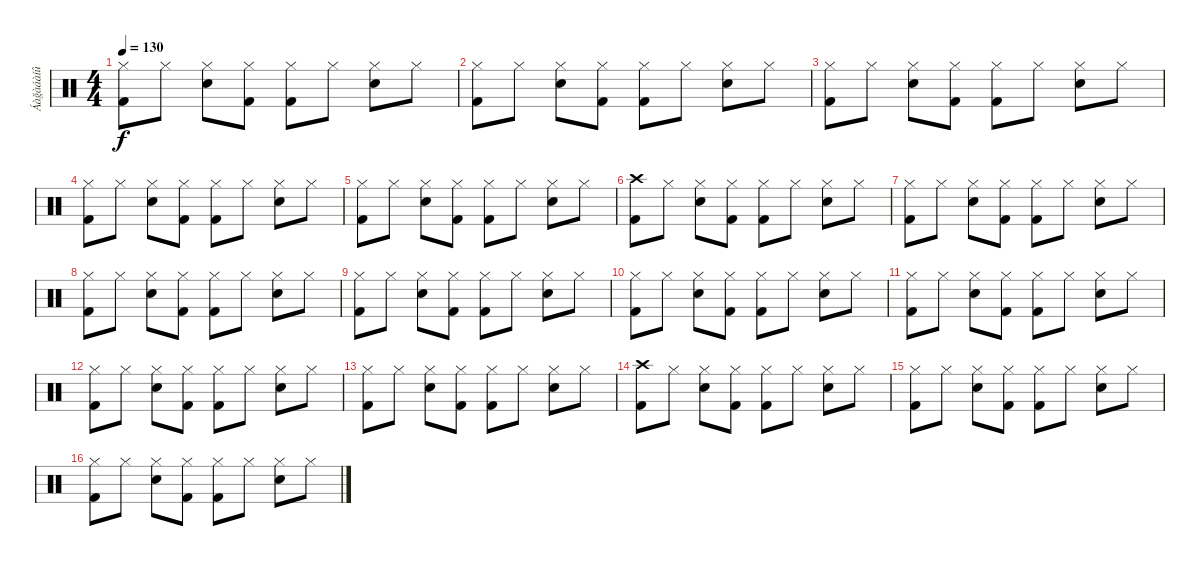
\track ("Áàğàáàíû" "Áàğàáàíû") {instrument percussion}
\staff {score}
\articulation defaults
\ts (4 4)
\tempo 130
\clef neutral
\ks c
("Hi-Hat (closed)" "Kick (hit) 2").8{dy f} "Hi-Hat (closed)".8 ("Hi-Hat (closed)" "Snare (hit) 2").8 ("Hi-Hat (closed)" "Kick (hit) 2").8 ("Hi-Hat (closed)" "Kick (hit) 2").8 "Hi-Hat (closed)".8 ("Hi-Hat (closed)" "Snare (hit) 2").8 "Hi-Hat (closed)".8 |
("Hi-Hat (closed)" "Kick (hit) 2").8 "Hi-Hat (closed)".8 ("Hi-Hat (closed)" "Snare (hit) 2").8 ("Hi-Hat (closed)" "Kick (hit) 2").8 ("Hi-Hat (closed)" "Kick (hit) 2").8 "Hi-Hat (closed)".8 ("Hi-Hat (closed)" "Snare (hit) 2").8 "Hi-Hat (closed)".8 |
("Hi-Hat (closed)" "Kick (hit) 2").8 "Hi-Hat (closed)".8 ("Hi-Hat (closed)" "Snare (hit) 2").8 ("Hi-Hat (closed)" "Kick (hit) 2").8 ("Hi-Hat (closed)" "Kick (hit) 2").8 "Hi-Hat (closed)".8 ("Hi-Hat (closed)" "Snare (hit) 2").8 "Hi-Hat (closed)".8 |
("Hi-Hat (closed)" "Kick (hit) 2").8 "Hi-Hat (closed)".8 ("Hi-Hat (closed)" "Snare (hit) 2").8 ("Hi-Hat (closed)" "Kick (hit) 2").8 ("Hi-Hat (closed)" "Kick (hit) 2").8 "Hi-Hat (closed)".8 ("Hi-Hat (closed)" "Snare (hit) 2").8 "Hi-Hat (closed)".8 |
("Hi-Hat (closed)" "Kick (hit) 2").8 "Hi-Hat (closed)".8 ("Hi-Hat (closed)" "Snare (hit) 2").8 ("Hi-Hat (closed)" "Kick (hit) 2").8 ("Hi-Hat (closed)" "Kick (hit) 2").8 "Hi-Hat (closed)".8 ("Hi-Hat (closed)" "Snare (hit) 2").8 "Hi-Hat (closed)".8 |
("Crash high (hit)" "Kick (hit) 2").8 "Hi-Hat (closed)".8 ("Hi-Hat (closed)" "Snare (hit) 2").8 ("Hi-Hat (closed)" "Kick (hit) 2").8 ("Hi-Hat (closed)" "Kick (hit) 2").8 "Hi-Hat (closed)".8 ("Hi-Hat (closed)" "Snare (hit) 2").8 "Hi-Hat (closed)".8 |
("Hi-Hat (closed)" "Kick (hit) 2").8 "Hi-Hat (closed)".8 ("Hi-Hat (closed)" "Snare (hit) 2").8 ("Hi-Hat (closed)" "Kick (hit) 2").8 ("Hi-Hat (closed)" "Kick (hit) 2").8 "Hi-Hat (closed)".8 ("Hi-Hat (closed)" "Snare (hit) 2").8 "Hi-Hat (closed)".8 |
("Hi-Hat (closed)" "Kick (hit) 2").8 "Hi-Hat (closed)".8 ("Hi-Hat (closed)" "Snare (hit) 2").8 ("Hi-Hat (closed)" "Kick (hit) 2").8 ("Hi-Hat (closed)" "Kick (hit) 2").8 "Hi-Hat (closed)".8 ("Hi-Hat (closed)" "Snare (hit) 2").8 "Hi-Hat (closed)".8 |
("Hi-Hat (closed)" "Kick (hit) 2").8 "Hi-Hat (closed)".8 ("Hi-Hat (closed)" "Snare (hit) 2").8 ("Hi-Hat (closed)" "Kick (hit) 2").8 ("Hi-Hat (closed)" "Kick (hit) 2").8 "Hi-Hat (closed)".8 ("Hi-Hat (closed)" "Snare (hit) 2").8 "Hi-Hat (closed)".8 |
("Hi-Hat (closed)" "Kick (hit) 2").8 "Hi-Hat (closed)".8 ("Hi-Hat (closed)" "Snare (hit) 2").8 ("Hi-Hat (closed)" "Kick (hit) 2").8 ("Hi-Hat (closed)" "Kick (hit) 2").8 "Hi-Hat (closed)".8 ("Hi-Hat (closed)" "Snare (hit) 2").8 "Hi-Hat (closed)".8 |
("Hi-Hat (closed)" "Kick (hit) 2").8 "Hi-Hat (closed)".8 ("Hi-Hat (closed)" "Snare (hit) 2").8 ("Hi-Hat (closed)" "Kick (hit) 2").8 ("Hi-Hat (closed)" "Kick (hit) 2").8 "Hi-Hat (closed)".8 ("Hi-Hat (closed)" "Snare (hit) 2").8 "Hi-Hat (closed)".8 |
("Hi-Hat (closed)" "Kick (hit) 2").8 "Hi-Hat (closed)".8 ("Hi-Hat (closed)" "Snare (hit) 2").8 ("Hi-Hat (closed)" "Kick (hit) 2").8 ("Hi-Hat (closed)" "Kick (hit) 2").8 "Hi-Hat (closed)".8 ("Hi-Hat (closed)" "Snare (hit) 2").8 "Hi-Hat (closed)".8 |
("Hi-Hat (closed)" "Kick (hit) 2").8 "Hi-Hat (closed)".8 ("Hi-Hat (closed)" "Snare (hit) 2").8 ("Hi-Hat (closed)" "Kick (hit) 2").8 ("Hi-Hat (closed)" "Kick (hit) 2").8 "Hi-Hat (closed)".8 ("Hi-Hat (closed)" "Snare (hit) 2").8 "Hi-Hat (closed)".8 |
("Crash high (hit)" "Kick (hit) 2").8 "Hi-Hat (closed)".8 ("Hi-Hat (closed)" "Snare (hit) 2").8 ("Hi-Hat (closed)" "Kick (hit) 2").8 ("Hi-Hat (closed)" "Kick (hit) 2").8 "Hi-Hat (closed)".8 ("Hi-Hat (closed)" "Snare (hit) 2").8 "Hi-Hat (closed)".8 |
("Hi-Hat (closed)" "Kick (hit) 2").8 "Hi-Hat (closed)".8 ("Hi-Hat (closed)" "Snare (hit) 2").8 ("Hi-Hat (closed)" "Kick (hit) 2").8 ("Hi-Hat (closed)" "Kick (hit) 2").8 "Hi-Hat (closed)".8 ("Hi-Hat (closed)" "Snare (hit) 2").8 "Hi-Hat (closed)".8 |
("Hi-Hat (closed)" "Kick (hit) 2").8 "Hi-Hat (closed)".8 ("Hi-Hat (closed)" "Snare (hit) 2").8 ("Hi-Hat (closed)" "Kick (hit) 2").8 ("Hi-Hat (closed)" "Kick (hit) 2").8 "Hi-Hat (closed)".8 ("Hi-Hat (closed)" "Snare (hit) 2").8 "Hi-Hat (closed)".8
